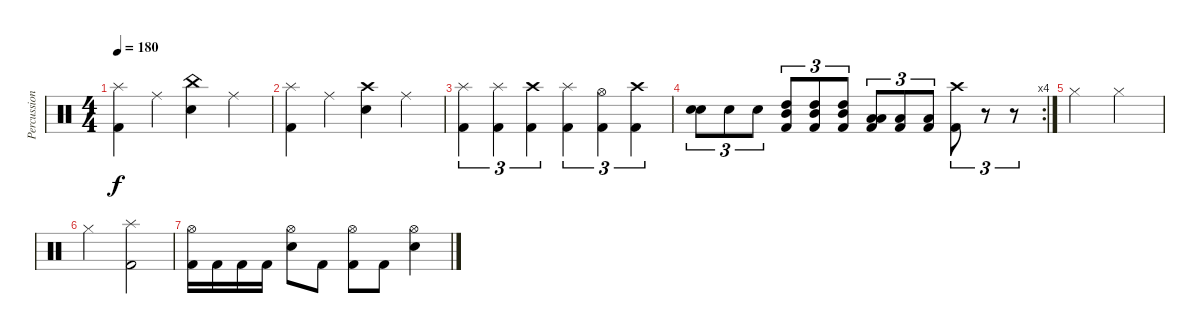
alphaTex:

\track ("Percussions" "Percussion") {instrument percussion}
\staff {score}
\articulation defaults
\ts (4 4)
\tempo 180
\clef neutral
\ks c
("Splash (hit)" "Kick (hit) 2").4{dy f} "Ride (middle)".4 ("China (hit)" "Electric Snare (hit)").4 "Ride (middle)".4 |
("Splash (hit)" "Kick (hit) 2").4 "Ride (middle)".4 ("Crash high (hit)" "Electric Snare (hit)").4 "Ride (middle)".4 |
("Splash (hit)" "Kick (hit) 2").4{tu (3 2)} ("Splash (hit)" "Kick (hit) 2").4{tu (3 2)} ("Crash high (hit)" "Kick (hit) 2").4{tu (3 2)} ("Splash (hit)" "Kick (hit) 2").4{tu (3 2)} ("Hi-Hat (open)" "Kick (hit) 2").4{tu (3 2)} ("Crash high (hit)" "Kick (hit) 2").4{tu (3 2)} |
\rc 4
("Electric Snare (hit)" "Electric Snare (hit)").8{tu (3 2)} "Electric Snare (hit)".8{tu (3 2)} "Electric Snare (hit)".8{tu (3 2)} ("Mid Tom (hit)" "High Tom (hit)" "Kick (hit) 2").8{tu (3 2)} ("Mid Tom (hit)" "High Tom (hit)" "Kick (hit) 2").8{tu (3 2)} ("Mid Tom (hit)" "High Tom (hit)" "Kick (hit) 2").8{tu (3 2)} ("Low Tom (hit)" "Low Tom (hit)" "Kick (hit) 2").8{tu (3 2)} ("Low Tom (hit)" "Kick (hit) 2").8{tu (3 2)} ("Low Tom (hit)" "Kick (hit) 2").8{tu (3 2)} ("Crash high (hit)" "Kick (hit) 2").8{tu (3 2)} r.8{tu (3 2)} r.8{tu (3 2)} |
"Hi-Hat (closed)".2 "Hi-Hat (closed)".2 |
"Hi-Hat (closed)".2 ("Splash (hit)" "Kick (hit) 2").2 |
("Hi-Hat (open)" "Kick (hit) 2").16 "Kick (hit) 2".16 "Kick (hit) 2".16 "Kick (hit) 2".16 ("Hi-Hat (open)" "Electric Snare (hit)").8 "Kick (hit) 2".8 ("Hi-Hat (open)" "Kick (hit) 2").8 "Kick (hit) 2".8 ("Hi-Hat (open)" "Electric Snare (hit)").4
